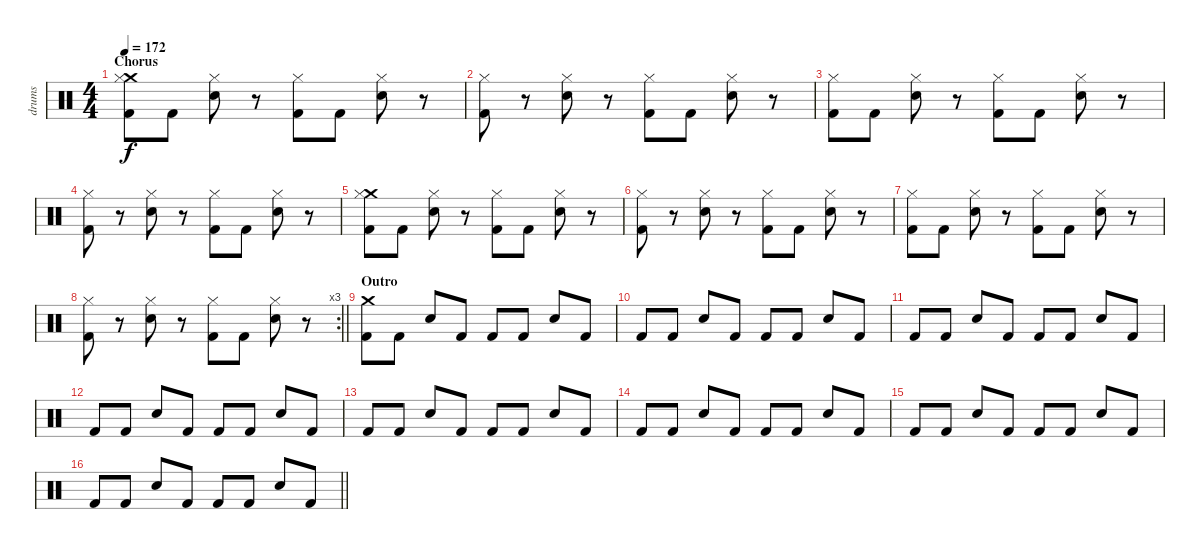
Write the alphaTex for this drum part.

\track ("drums" "drums") {instrument percussion}
\staff {score}
\articulation defaults
\ts (4 4)
\section ("" "Chorus")
\tempo 172
\clef neutral
\ks c
("Crash medium (hit)" "Hi-Hat (closed)" "Kick (hit) 2").8{dy f} "Kick (hit) 2".8 ("Hi-Hat (closed)" "Electric Snare (hit)").8 r.8 ("Hi-Hat (closed)" "Kick (hit) 2").8 "Kick (hit) 2".8 ("Hi-Hat (closed)" "Electric Snare (hit)").8 r.8 |
("Hi-Hat (closed)" "Kick (hit) 2").8 r.8 ("Hi-Hat (closed)" "Electric Snare (hit)").8 r.8 ("Hi-Hat (closed)" "Kick (hit) 2").8 "Kick (hit) 2".8 ("Hi-Hat (closed)" "Electric Snare (hit)").8 r.8 |
("Hi-Hat (closed)" "Kick (hit) 2").8 "Kick (hit) 2".8 ("Hi-Hat (closed)" "Electric Snare (hit)").8 r.8 ("Hi-Hat (closed)" "Kick (hit) 2").8 "Kick (hit) 2".8 ("Hi-Hat (closed)" "Electric Snare (hit)").8 r.8 |
("Hi-Hat (closed)" "Kick (hit) 2").8 r.8 ("Hi-Hat (closed)" "Electric Snare (hit)").8 r.8 ("Hi-Hat (closed)" "Kick (hit) 2").8 "Kick (hit) 2".8 ("Hi-Hat (closed)" "Electric Snare (hit)").8 r.8 |
("Crash medium (hit)" "Hi-Hat (closed)" "Kick (hit) 2").8 "Kick (hit) 2".8 ("Hi-Hat (closed)" "Electric Snare (hit)").8 r.8 ("Hi-Hat (closed)" "Kick (hit) 2").8 "Kick (hit) 2".8 ("Hi-Hat (closed)" "Electric Snare (hit)").8 r.8 |
("Hi-Hat (closed)" "Kick (hit) 2").8 r.8 ("Hi-Hat (closed)" "Electric Snare (hit)").8 r.8 ("Hi-Hat (closed)" "Kick (hit) 2").8 "Kick (hit) 2".8 ("Hi-Hat (closed)" "Electric Snare (hit)").8 r.8 |
("Hi-Hat (closed)" "Kick (hit) 2").8 "Kick (hit) 2".8 ("Hi-Hat (closed)" "Electric Snare (hit)").8 r.8 ("Hi-Hat (closed)" "Kick (hit) 2").8 "Kick (hit) 2".8 ("Hi-Hat (closed)" "Electric Snare (hit)").8 r.8 |
\rc 3
\barLineRight lightlight
("Hi-Hat (closed)" "Kick (hit) 2").8 r.8 ("Hi-Hat (closed)" "Electric Snare (hit)").8 r.8 ("Hi-Hat (closed)" "Kick (hit) 2").8 "Kick (hit) 2".8 ("Hi-Hat (closed)" "Electric Snare (hit)").8 r.8 |
\section ("" "Outro")
("Crash medium (hit)" "Kick (hit) 2").8 "Kick (hit) 2".8 "Electric Snare (hit)".8 "Kick (hit) 2".8 "Kick (hit) 2".8 "Kick (hit) 2".8 "Electric Snare (hit)".8 "Kick (hit) 2".8 |
"Kick (hit) 2".8 "Kick (hit) 2".8 "Electric Snare (hit)".8 "Kick (hit) 2".8 "Kick (hit) 2".8 "Kick (hit) 2".8 "Electric Snare (hit)".8 "Kick (hit) 2".8 |
"Kick (hit) 2".8 "Kick (hit) 2".8 "Electric Snare (hit)".8 "Kick (hit) 2".8 "Kick (hit) 2".8 "Kick (hit) 2".8 "Electric Snare (hit)".8 "Kick (hit) 2".8 |
"Kick (hit) 2".8 "Kick (hit) 2".8 "Electric Snare (hit)".8 "Kick (hit) 2".8 "Kick (hit) 2".8 "Kick (hit) 2".8 "Electric Snare (hit)".8 "Kick (hit) 2".8 |
"Kick (hit) 2".8 "Kick (hit) 2".8 "Electric Snare (hit)".8 "Kick (hit) 2".8 "Kick (hit) 2".8 "Kick (hit) 2".8 "Electric Snare (hit)".8 "Kick (hit) 2".8 |
"Kick (hit) 2".8 "Kick (hit) 2".8 "Electric Snare (hit)".8 "Kick (hit) 2".8 "Kick (hit) 2".8 "Kick (hit) 2".8 "Electric Snare (hit)".8 "Kick (hit) 2".8 |
"Kick (hit) 2".8 "Kick (hit) 2".8 "Electric Snare (hit)".8 "Kick (hit) 2".8 "Kick (hit) 2".8 "Kick (hit) 2".8 "Electric Snare (hit)".8 "Kick (hit) 2".8 |
\barLineRight lightlight "Kick (hit) 2".8 "Kick (hit) 2".8 "Electric Snare (hit)".8 "Kick (hit) 2".8 "Kick (hit) 2".8 "Kick (hit) 2".8 "Electric Snare (hit)".8 "Kick (hit) 2".8
